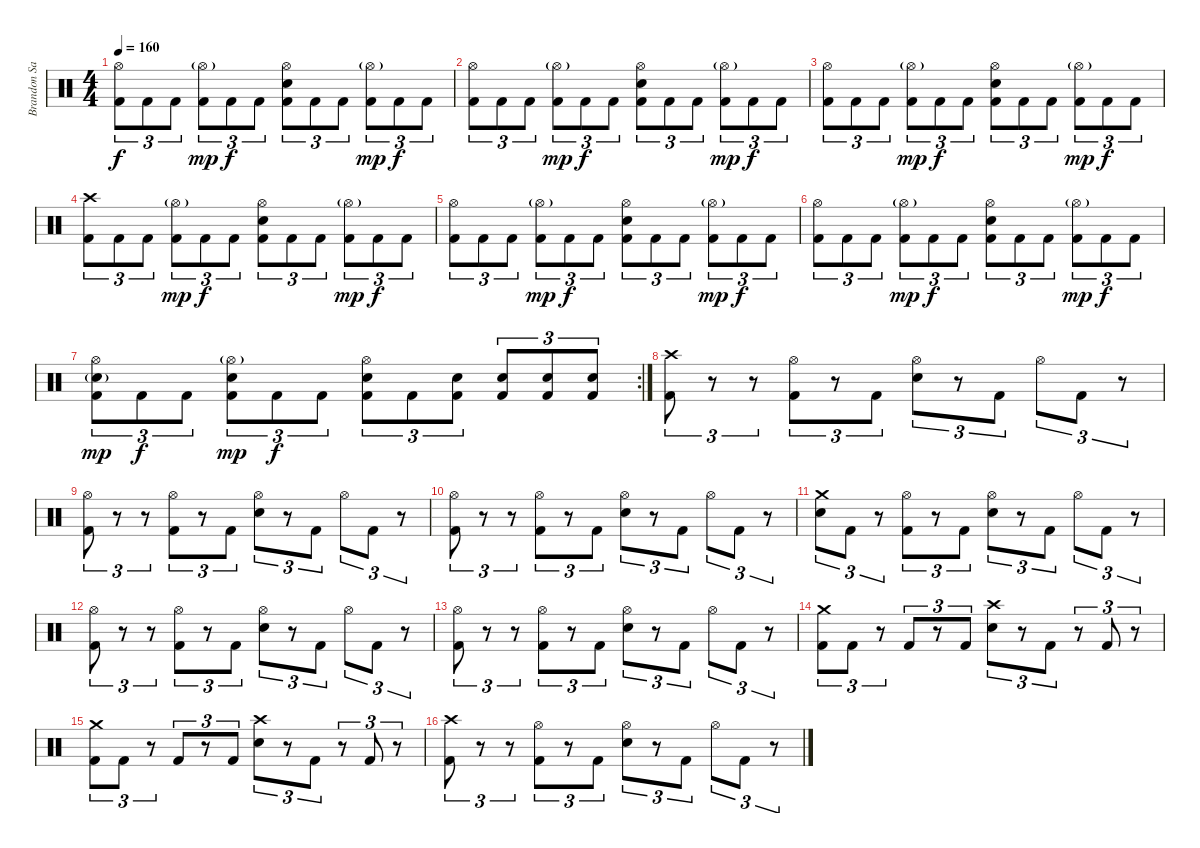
\track ("Brandon Saller" "Brandon Sa") {instrument percussion}
\staff {score}
\articulation defaults
\ts (4 4)
\tempo 160
\clef neutral
\ks c
("Hi-Hat (open)" "Kick (hit) 2").8{tu (3 2) dy f} "Kick (hit) 2".8{tu (3 2)} "Kick (hit) 2".8{tu (3 2)} ("Hi-Hat (open)"{g} "Kick (hit) 2").8{tu (3 2) dy mp} "Kick (hit) 2".8{tu (3 2) dy f} "Kick (hit) 2".8{tu (3 2)} ("Hi-Hat (open)" "Electric Snare (hit)" "Kick (hit) 2").8{tu (3 2)} "Kick (hit) 2".8{tu (3 2)} "Kick (hit) 2".8{tu (3 2)} ("Hi-Hat (open)"{g} "Kick (hit) 2").8{tu (3 2) dy mp} "Kick (hit) 2".8{tu (3 2) dy f} "Kick (hit) 2".8{tu (3 2)} |
("Hi-Hat (open)" "Kick (hit) 2").8{tu (3 2)} "Kick (hit) 2".8{tu (3 2)} "Kick (hit) 2".8{tu (3 2)} ("Hi-Hat (open)"{g} "Kick (hit) 2").8{tu (3 2) dy mp} "Kick (hit) 2".8{tu (3 2) dy f} "Kick (hit) 2".8{tu (3 2)} ("Hi-Hat (open)" "Electric Snare (hit)" "Kick (hit) 2").8{tu (3 2)} "Kick (hit) 2".8{tu (3 2)} "Kick (hit) 2".8{tu (3 2)} ("Hi-Hat (open)"{g} "Kick (hit) 2").8{tu (3 2) dy mp} "Kick (hit) 2".8{tu (3 2) dy f} "Kick (hit) 2".8{tu (3 2)} |
("Hi-Hat (open)" "Kick (hit) 2").8{tu (3 2)} "Kick (hit) 2".8{tu (3 2)} "Kick (hit) 2".8{tu (3 2)} ("Hi-Hat (open)"{g} "Kick (hit) 2").8{tu (3 2) dy mp} "Kick (hit) 2".8{tu (3 2) dy f} "Kick (hit) 2".8{tu (3 2)} ("Hi-Hat (open)" "Electric Snare (hit)" "Kick (hit) 2").8{tu (3 2)} "Kick (hit) 2".8{tu (3 2)} "Kick (hit) 2".8{tu (3 2)} ("Hi-Hat (open)"{g} "Kick (hit) 2").8{tu (3 2) dy mp} "Kick (hit) 2".8{tu (3 2) dy f} "Kick (hit) 2".8{tu (3 2)} |
("Crash high (hit)" "Kick (hit) 2").8{tu (3 2)} "Kick (hit) 2".8{tu (3 2)} "Kick (hit) 2".8{tu (3 2)} ("Hi-Hat (open)"{g} "Kick (hit) 2").8{tu (3 2) dy mp} "Kick (hit) 2".8{tu (3 2) dy f} "Kick (hit) 2".8{tu (3 2)} ("Hi-Hat (open)" "Electric Snare (hit)" "Kick (hit) 2").8{tu (3 2)} "Kick (hit) 2".8{tu (3 2)} "Kick (hit) 2".8{tu (3 2)} ("Hi-Hat (open)"{g} "Kick (hit) 2").8{tu (3 2) dy mp} "Kick (hit) 2".8{tu (3 2) dy f} "Kick (hit) 2".8{tu (3 2)} |
("Hi-Hat (open)" "Kick (hit) 2").8{tu (3 2)} "Kick (hit) 2".8{tu (3 2)} "Kick (hit) 2".8{tu (3 2)} ("Hi-Hat (open)"{g} "Kick (hit) 2").8{tu (3 2) dy mp} "Kick (hit) 2".8{tu (3 2) dy f} "Kick (hit) 2".8{tu (3 2)} ("Hi-Hat (open)" "Electric Snare (hit)" "Kick (hit) 2").8{tu (3 2)} "Kick (hit) 2".8{tu (3 2)} "Kick (hit) 2".8{tu (3 2)} ("Hi-Hat (open)"{g} "Kick (hit) 2").8{tu (3 2) dy mp} "Kick (hit) 2".8{tu (3 2) dy f} "Kick (hit) 2".8{tu (3 2)} |
("Hi-Hat (open)" "Kick (hit) 2").8{tu (3 2)} "Kick (hit) 2".8{tu (3 2)} "Kick (hit) 2".8{tu (3 2)} ("Hi-Hat (open)"{g} "Kick (hit) 2").8{tu (3 2) dy mp} "Kick (hit) 2".8{tu (3 2) dy f} "Kick (hit) 2".8{tu (3 2)} ("Hi-Hat (open)" "Electric Snare (hit)" "Kick (hit) 2").8{tu (3 2)} "Kick (hit) 2".8{tu (3 2)} "Kick (hit) 2".8{tu (3 2)} ("Hi-Hat (open)"{g} "Kick (hit) 2").8{tu (3 2) dy mp} "Kick (hit) 2".8{tu (3 2) dy f} "Kick (hit) 2".8{tu (3 2)} |
\rc 2
("Hi-Hat (open)" "Electric Snare (hit)"{g} "Kick (hit) 2").8{tu (3 2) dy mp} "Kick (hit) 2".8{tu (3 2) dy f} "Kick (hit) 2".8{tu (3 2)} ("Hi-Hat (open)"{g} "Electric Snare (hit)" "Kick (hit) 2").8{tu (3 2) dy mp} "Kick (hit) 2".8{tu (3 2) dy f} "Kick (hit) 2".8{tu (3 2)} ("Hi-Hat (open)" "Electric Snare (hit)" "Kick (hit) 2").8{tu (3 2)} "Kick (hit) 2".8{tu (3 2)} ("Electric Snare (hit)" "Kick (hit) 2").8{tu (3 2)} ("Electric Snare (hit)" "Kick (hit) 2").8{tu (3 2)} ("Electric Snare (hit)" "Kick (hit) 2").8{tu (3 2)} ("Electric Snare (hit)" "Kick (hit) 2").8{tu (3 2)} |
("Crash high (hit)" "Kick (hit) 2").8{tu (3 2)} r.8{tu (3 2)} r.8{tu (3 2)} ("Hi-Hat (open)" "Kick (hit) 2").8{tu (3 2)} r.8{tu (3 2)} "Kick (hit) 2".8{tu (3 2)} ("Hi-Hat (open)" "Electric Snare (hit)").8{tu (3 2)} r.8{tu (3 2)} "Kick (hit) 2".8{tu (3 2)} "Hi-Hat (open)".8{tu (3 2)} "Kick (hit) 2".8{tu (3 2)} r.8{tu (3 2)} |
("Hi-Hat (open)" "Kick (hit) 2").8{tu (3 2)} r.8{tu (3 2)} r.8{tu (3 2)} ("Hi-Hat (open)" "Kick (hit) 2").8{tu (3 2)} r.8{tu (3 2)} "Kick (hit) 2".8{tu (3 2)} ("Hi-Hat (open)" "Electric Snare (hit)").8{tu (3 2)} r.8{tu (3 2)} "Kick (hit) 2".8{tu (3 2)} "Hi-Hat (open)".8{tu (3 2)} "Kick (hit) 2".8{tu (3 2)} r.8{tu (3 2)} |
("Hi-Hat (open)" "Kick (hit) 2").8{tu (3 2)} r.8{tu (3 2)} r.8{tu (3 2)} ("Hi-Hat (open)" "Kick (hit) 2").8{tu (3 2)} r.8{tu (3 2)} "Kick (hit) 2".8{tu (3 2)} ("Hi-Hat (open)" "Electric Snare (hit)").8{tu (3 2)} r.8{tu (3 2)} "Kick (hit) 2".8{tu (3 2)} "Hi-Hat (open)".8{tu (3 2)} "Kick (hit) 2".8{tu (3 2)} r.8{tu (3 2)} |
("Crash medium (hit)" "Electric Snare (hit)").8{tu (3 2)} "Kick (hit) 2".8{tu (3 2)} r.8{tu (3 2)} ("Hi-Hat (open)" "Kick (hit) 2").8{tu (3 2)} r.8{tu (3 2)} "Kick (hit) 2".8{tu (3 2)} ("Hi-Hat (open)" "Electric Snare (hit)").8{tu (3 2)} r.8{tu (3 2)} "Kick (hit) 2".8{tu (3 2)} "Hi-Hat (open)".8{tu (3 2)} "Kick (hit) 2".8{tu (3 2)} r.8{tu (3 2)} |
("Hi-Hat (open)" "Kick (hit) 2").8{tu (3 2)} r.8{tu (3 2)} r.8{tu (3 2)} ("Hi-Hat (open)" "Kick (hit) 2").8{tu (3 2)} r.8{tu (3 2)} "Kick (hit) 2".8{tu (3 2)} ("Hi-Hat (open)" "Electric Snare (hit)").8{tu (3 2)} r.8{tu (3 2)} "Kick (hit) 2".8{tu (3 2)} "Hi-Hat (open)".8{tu (3 2)} "Kick (hit) 2".8{tu (3 2)} r.8{tu (3 2)} |
("Hi-Hat (open)" "Kick (hit) 2").8{tu (3 2)} r.8{tu (3 2)} r.8{tu (3 2)} ("Hi-Hat (open)" "Kick (hit) 2").8{tu (3 2)} r.8{tu (3 2)} "Kick (hit) 2".8{tu (3 2)} ("Hi-Hat (open)" "Electric Snare (hit)").8{tu (3 2)} r.8{tu (3 2)} "Kick (hit) 2".8{tu (3 2)} "Hi-Hat (open)".8{tu (3 2)} "Kick (hit) 2".8{tu (3 2)} r.8{tu (3 2)} |
("Crash medium (hit)" "Kick (hit) 2").8{tu (3 2)} "Kick (hit) 2".8{tu (3 2)} r.8{tu (3 2)} "Kick (hit) 2".8{tu (3 2)} r.8{tu (3 2)} "Kick (hit) 2".8{tu (3 2)} ("Crash high (hit)" "Electric Snare (hit)").8{tu (3 2)} r.8{tu (3 2)} "Kick (hit) 2".8{tu (3 2)} r.8{tu (3 2)} "Kick (hit) 2".8{tu (3 2)} r.8{tu (3 2)} |
("Crash medium (hit)" "Kick (hit) 2").8{tu (3 2)} "Kick (hit) 2".8{tu (3 2)} r.8{tu (3 2)} "Kick (hit) 2".8{tu (3 2)} r.8{tu (3 2)} "Kick (hit) 2".8{tu (3 2)} ("Crash high (hit)" "Electric Snare (hit)").8{tu (3 2)} r.8{tu (3 2)} "Kick (hit) 2".8{tu (3 2)} r.8{tu (3 2)} "Kick (hit) 2".8{tu (3 2)} r.8{tu (3 2)} |
("Crash high (hit)" "Kick (hit) 2").8{tu (3 2)} r.8{tu (3 2)} r.8{tu (3 2)} ("Hi-Hat (open)" "Kick (hit) 2").8{tu (3 2)} r.8{tu (3 2)} "Kick (hit) 2".8{tu (3 2)} ("Hi-Hat (open)" "Electric Snare (hit)").8{tu (3 2)} r.8{tu (3 2)} "Kick (hit) 2".8{tu (3 2)} "Hi-Hat (open)".8{tu (3 2)} "Kick (hit) 2".8{tu (3 2)} r.8{tu (3 2)}
